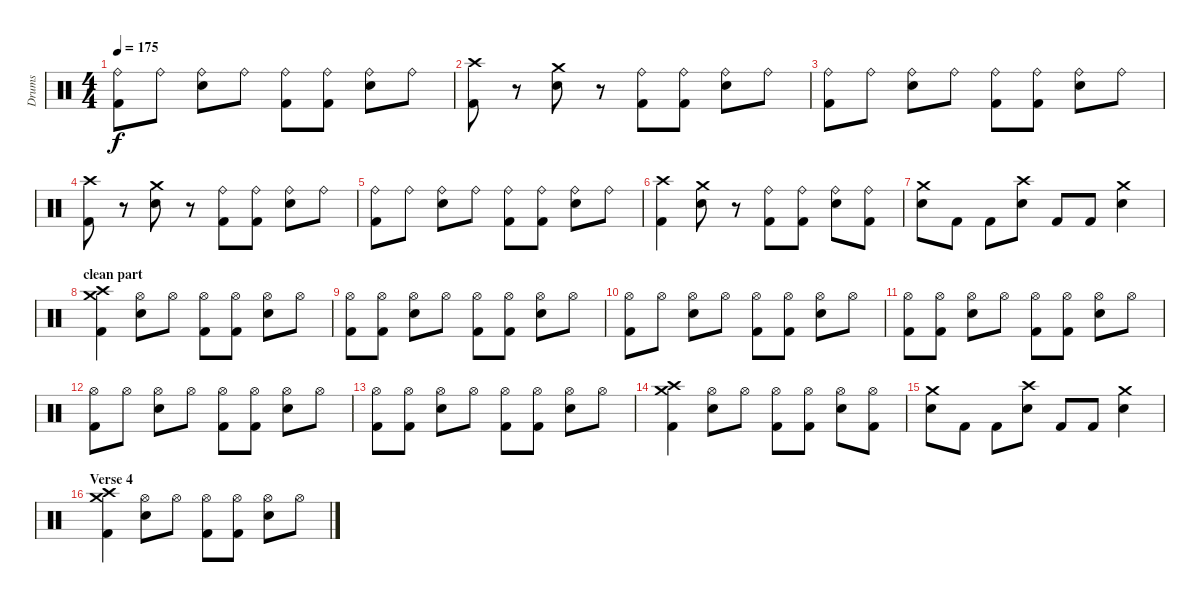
\track ("Drums" "Drums") {instrument percussion}
\staff {score}
\articulation defaults
\ts (4 4)
\tempo 175
\clef neutral
\ks c
("Ride (bell)" "Kick (hit) 2").8{dy f} "Ride (bell)".8 ("Ride (bell)" "Electric Snare (hit)").8 "Ride (bell)".8 ("Ride (bell)" "Kick (hit) 2").8 ("Ride (bell)" "Kick (hit) 2").8 ("Ride (bell)" "Electric Snare (hit)").8 "Ride (bell)".8 |
("Crash high (hit)" "Kick (hit) 2").8 r.8 ("Crash medium (hit)" "Electric Snare (hit)").8 r.8 ("Ride (bell)" "Kick (hit) 2").8 ("Ride (bell)" "Kick (hit) 2").8 ("Ride (bell)" "Electric Snare (hit)").8 "Ride (bell)".8 |
("Ride (bell)" "Kick (hit) 2").8 "Ride (bell)".8 ("Ride (bell)" "Electric Snare (hit)").8 "Ride (bell)".8 ("Ride (bell)" "Kick (hit) 2").8 ("Ride (bell)" "Kick (hit) 2").8 ("Ride (bell)" "Electric Snare (hit)").8 "Ride (bell)".8 |
("Crash high (hit)" "Kick (hit) 2").8 r.8 ("Crash medium (hit)" "Electric Snare (hit)").8 r.8 ("Ride (bell)" "Kick (hit) 2").8 ("Ride (bell)" "Kick (hit) 2").8 ("Ride (bell)" "Electric Snare (hit)").8 "Ride (bell)".8 |
("Ride (bell)" "Kick (hit) 2").8 "Ride (bell)".8 ("Ride (bell)" "Electric Snare (hit)").8 "Ride (bell)".8 ("Ride (bell)" "Kick (hit) 2").8 ("Ride (bell)" "Kick (hit) 2").8 ("Ride (bell)" "Electric Snare (hit)").8 "Ride (bell)".8 |
("Crash high (hit)" "Kick (hit) 2").4 ("Crash medium (hit)" "Electric Snare (hit)").8 r.8 ("Ride (bell)" "Kick (hit) 2").8 ("Ride (bell)" "Kick (hit) 2").8 ("Ride (bell)" "Electric Snare (hit)").8 ("Ride (bell)" "Kick (hit) 2").8 |
("Crash medium (hit)" "Electric Snare (hit)").8 "Kick (hit) 2".8 "Kick (hit) 2".8 ("Crash high (hit)" "Electric Snare (hit)").8 "Kick (hit) 2".8 "Kick (hit) 2".8 ("Crash medium (hit)" "Electric Snare (hit)").4 |
\section ("" "clean part")
("Crash high (hit)" "Crash medium (hit)" "Kick (hit) 2").4 ("Hi-Hat (open)" "Electric Snare (hit)").8 "Hi-Hat (open)".8 ("Hi-Hat (open)" "Kick (hit) 2").8 ("Hi-Hat (open)" "Kick (hit) 2").8 ("Hi-Hat (open)" "Electric Snare (hit)").8 "Hi-Hat (open)".8 |
("Hi-Hat (open)" "Kick (hit) 2").8 ("Hi-Hat (open)" "Kick (hit) 2").8 ("Hi-Hat (open)" "Electric Snare (hit)").8 "Hi-Hat (open)".8 ("Hi-Hat (open)" "Kick (hit) 2").8 ("Hi-Hat (open)" "Kick (hit) 2").8 ("Hi-Hat (open)" "Electric Snare (hit)").8 "Hi-Hat (open)".8 |
("Hi-Hat (open)" "Kick (hit) 2").8 "Hi-Hat (open)".8 ("Hi-Hat (open)" "Electric Snare (hit)").8 "Hi-Hat (open)".8 ("Hi-Hat (open)" "Kick (hit) 2").8 ("Hi-Hat (open)" "Kick (hit) 2").8 ("Hi-Hat (open)" "Electric Snare (hit)").8 "Hi-Hat (open)".8 |
("Hi-Hat (open)" "Kick (hit) 2").8 ("Hi-Hat (open)" "Kick (hit) 2").8 ("Hi-Hat (open)" "Electric Snare (hit)").8 "Hi-Hat (open)".8 ("Hi-Hat (open)" "Kick (hit) 2").8 ("Hi-Hat (open)" "Kick (hit) 2").8 ("Hi-Hat (open)" "Electric Snare (hit)").8 "Hi-Hat (open)".8 |
("Hi-Hat (open)" "Kick (hit) 2").8 "Hi-Hat (open)".8 ("Hi-Hat (open)" "Electric Snare (hit)").8 "Hi-Hat (open)".8 ("Hi-Hat (open)" "Kick (hit) 2").8 ("Hi-Hat (open)" "Kick (hit) 2").8 ("Hi-Hat (open)" "Electric Snare (hit)").8 "Hi-Hat (open)".8 |
("Hi-Hat (open)" "Kick (hit) 2").8 ("Hi-Hat (open)" "Kick (hit) 2").8 ("Hi-Hat (open)" "Electric Snare (hit)").8 "Hi-Hat (open)".8 ("Hi-Hat (open)" "Kick (hit) 2").8 ("Hi-Hat (open)" "Kick (hit) 2").8 ("Hi-Hat (open)" "Electric Snare (hit)").8 "Hi-Hat (open)".8 |
("Crash high (hit)" "Crash medium (hit)" "Kick (hit) 2").4 ("Hi-Hat (open)" "Electric Snare (hit)").8 "Hi-Hat (open)".8 ("Hi-Hat (open)" "Kick (hit) 2").8 ("Hi-Hat (open)" "Kick (hit) 2").8 ("Hi-Hat (open)" "Electric Snare (hit)").8 ("Hi-Hat (open)" "Kick (hit) 2").8 |
("Crash medium (hit)" "Electric Snare (hit)").8 "Kick (hit) 2".8 "Kick (hit) 2".8 ("Crash high (hit)" "Electric Snare (hit)").8 "Kick (hit) 2".8 "Kick (hit) 2".8 ("Crash medium (hit)" "Electric Snare (hit)").4 |
\section ("" "Verse 4")
("Crash high (hit)" "Crash medium (hit)" "Kick (hit) 2").4 ("Hi-Hat (open)" "Electric Snare (hit)").8 "Hi-Hat (open)".8 ("Hi-Hat (open)" "Kick (hit) 2").8 ("Hi-Hat (open)" "Kick (hit) 2").8 ("Hi-Hat (open)" "Electric Snare (hit)").8 "Hi-Hat (open)".8
